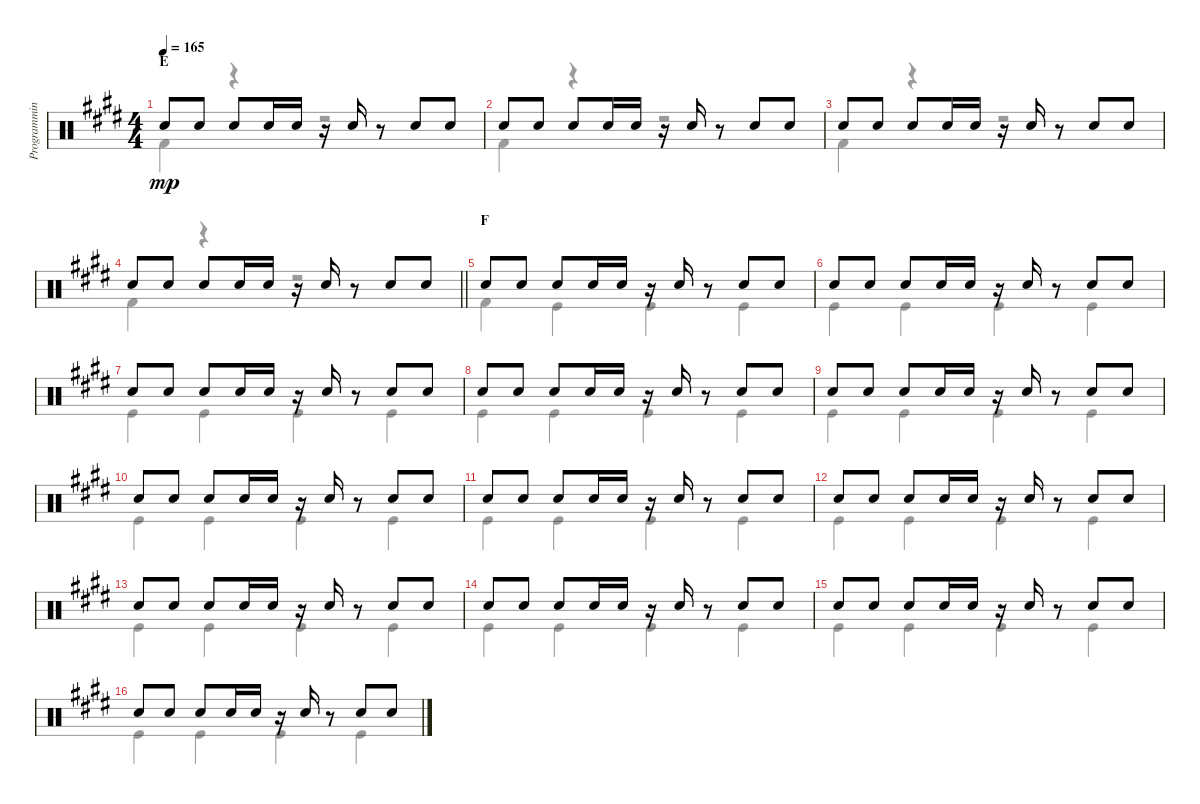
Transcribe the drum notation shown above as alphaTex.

\track ("Programming I" "Programmin") {instrument percussion}
\staff {score}
\articulation defaults
\voice
\ts (4 4)
\section ("" "E")
\tempo 165
\clef neutral
\ks e "Electric Snare (hit)".8{dy mp} "Electric Snare (hit)".8 "Electric Snare (hit)".8 "Electric Snare (hit)".16 "Electric Snare (hit)".16
r.16 "Electric Snare (hit)".16 r.8 "Electric Snare (hit)".8 "Electric Snare (hit)".8 |
"Electric Snare (hit)".8 "Electric Snare (hit)".8 "Electric Snare (hit)".8 "Electric Snare (hit)".16 "Electric Snare (hit)".16 r.16 "Electric Snare (hit)".16 r.8 "Electric Snare (hit)".8 "Electric Snare (hit)".8 |
"Electric Snare (hit)".8 "Electric Snare (hit)".8 "Electric Snare (hit)".8 "Electric Snare (hit)".16 "Electric Snare (hit)".16 r.16 "Electric Snare (hit)".16 r.8 "Electric Snare (hit)".8 "Electric Snare (hit)".8 |
\barLineRight lightlight "Electric Snare (hit)".8 "Electric Snare (hit)".8 "Electric Snare (hit)".8 "Electric Snare (hit)".16 "Electric Snare (hit)".16
r.16 "Electric Snare (hit)".16 r.8 "Electric Snare (hit)".8 "Electric Snare (hit)".8 |
\section ("" "F")
"Electric Snare (hit)".8 "Electric Snare (hit)".8 "Electric Snare (hit)".8 "Electric Snare (hit)".16 "Electric Snare (hit)".16 r.16 "Electric Snare (hit)".16 r.8 "Electric Snare (hit)".8 "Electric Snare (hit)".8 |
"Electric Snare (hit)".8 "Electric Snare (hit)".8 "Electric Snare (hit)".8 "Electric Snare (hit)".16 "Electric Snare (hit)".16 r.16 "Electric Snare (hit)".16 r.8 "Electric Snare (hit)".8 "Electric Snare (hit)".8 |
"Electric Snare (hit)".8 "Electric Snare (hit)".8 "Electric Snare (hit)".8 "Electric Snare (hit)".16 "Electric Snare (hit)".16 r.16 "Electric Snare (hit)".16 r.8 "Electric Snare (hit)".8 "Electric Snare (hit)".8 |
"Electric Snare (hit)".8 "Electric Snare (hit)".8 "Electric Snare (hit)".8 "Electric Snare (hit)".16 "Electric Snare (hit)".16 r.16 "Electric Snare (hit)".16 r.8 "Electric Snare (hit)".8 "Electric Snare (hit)".8 |
"Electric Snare (hit)".8 "Electric Snare (hit)".8 "Electric Snare (hit)".8 "Electric Snare (hit)".16 "Electric Snare (hit)".16 r.16 "Electric Snare (hit)".16 r.8 "Electric Snare (hit)".8 "Electric Snare (hit)".8 |
"Electric Snare (hit)".8 "Electric Snare (hit)".8 "Electric Snare (hit)".8 "Electric Snare (hit)".16 "Electric Snare (hit)".16 r.16 "Electric Snare (hit)".16 r.8 "Electric Snare (hit)".8 "Electric Snare (hit)".8 |
"Electric Snare (hit)".8 "Electric Snare (hit)".8 "Electric Snare (hit)".8 "Electric Snare (hit)".16 "Electric Snare (hit)".16 r.16 "Electric Snare (hit)".16 r.8 "Electric Snare (hit)".8 "Electric Snare (hit)".8 |
"Electric Snare (hit)".8 "Electric Snare (hit)".8 "Electric Snare (hit)".8 "Electric Snare (hit)".16 "Electric Snare (hit)".16 r.16 "Electric Snare (hit)".16 r.8 "Electric Snare (hit)".8 "Electric Snare (hit)".8 |
"Electric Snare (hit)".8 "Electric Snare (hit)".8 "Electric Snare (hit)".8 "Electric Snare (hit)".16 "Electric Snare (hit)".16 r.16 "Electric Snare (hit)".16 r.8 "Electric Snare (hit)".8 "Electric Snare (hit)".8 |
"Electric Snare (hit)".8 "Electric Snare (hit)".8 "Electric Snare (hit)".8 "Electric Snare (hit)".16 "Electric Snare (hit)".16 r.16 "Electric Snare (hit)".16 r.8 "Electric Snare (hit)".8 "Electric Snare (hit)".8 |
"Electric Snare (hit)".8 "Electric Snare (hit)".8 "Electric Snare (hit)".8 "Electric Snare (hit)".16 "Electric Snare (hit)".16 r.16 "Electric Snare (hit)".16 r.8 "Electric Snare (hit)".8 "Electric Snare (hit)".8 |
"Electric Snare (hit)".8 "Electric Snare (hit)".8 "Electric Snare (hit)".8 "Electric Snare (hit)".16 "Electric Snare (hit)".16 r.16 "Electric Snare (hit)".16 r.8 "Electric Snare (hit)".8 "Electric Snare (hit)".8
\voice
\clef neutral
\ottava regular
\simile none
\ks e "Kick (hit) 2".4{dy mp}
r.4 r.2 |
"Kick (hit) 2".4 r.4 r.2 |
"Kick (hit) 2".4 r.4 r.2 |
\barLineRight lightlight "Kick (hit) 2".4
r.4 r.2 |
"Kick (hit) 2".4 "Kick (hit)".4 "Kick (hit)".4 "Kick (hit)".4 |
"Kick (hit)".4 "Kick (hit)".4 "Kick (hit)".4 "Kick (hit)".4 |
"Kick (hit)".4 "Kick (hit)".4 "Kick (hit)".4 "Kick (hit)".4 |
"Kick (hit)".4 "Kick (hit)".4 "Kick (hit)".4 "Kick (hit)".4 |
"Kick (hit)".4 "Kick (hit)".4 "Kick (hit)".4 "Kick (hit)".4 |
"Kick (hit)".4 "Kick (hit)".4 "Kick (hit)".4 "Kick (hit)".4 |
"Kick (hit)".4 "Kick (hit)".4 "Kick (hit)".4 "Kick (hit)".4 |
"Kick (hit)".4 "Kick (hit)".4 "Kick (hit)".4 "Kick (hit)".4 |
"Kick (hit)".4 "Kick (hit)".4 "Kick (hit)".4 "Kick (hit)".4 |
"Kick (hit)".4 "Kick (hit)".4 "Kick (hit)".4 "Kick (hit)".4 |
"Kick (hit)".4 "Kick (hit)".4 "Kick (hit)".4 "Kick (hit)".4 |
"Kick (hit)".4 "Kick (hit)".4 "Kick (hit)".4 "Kick (hit)".4
